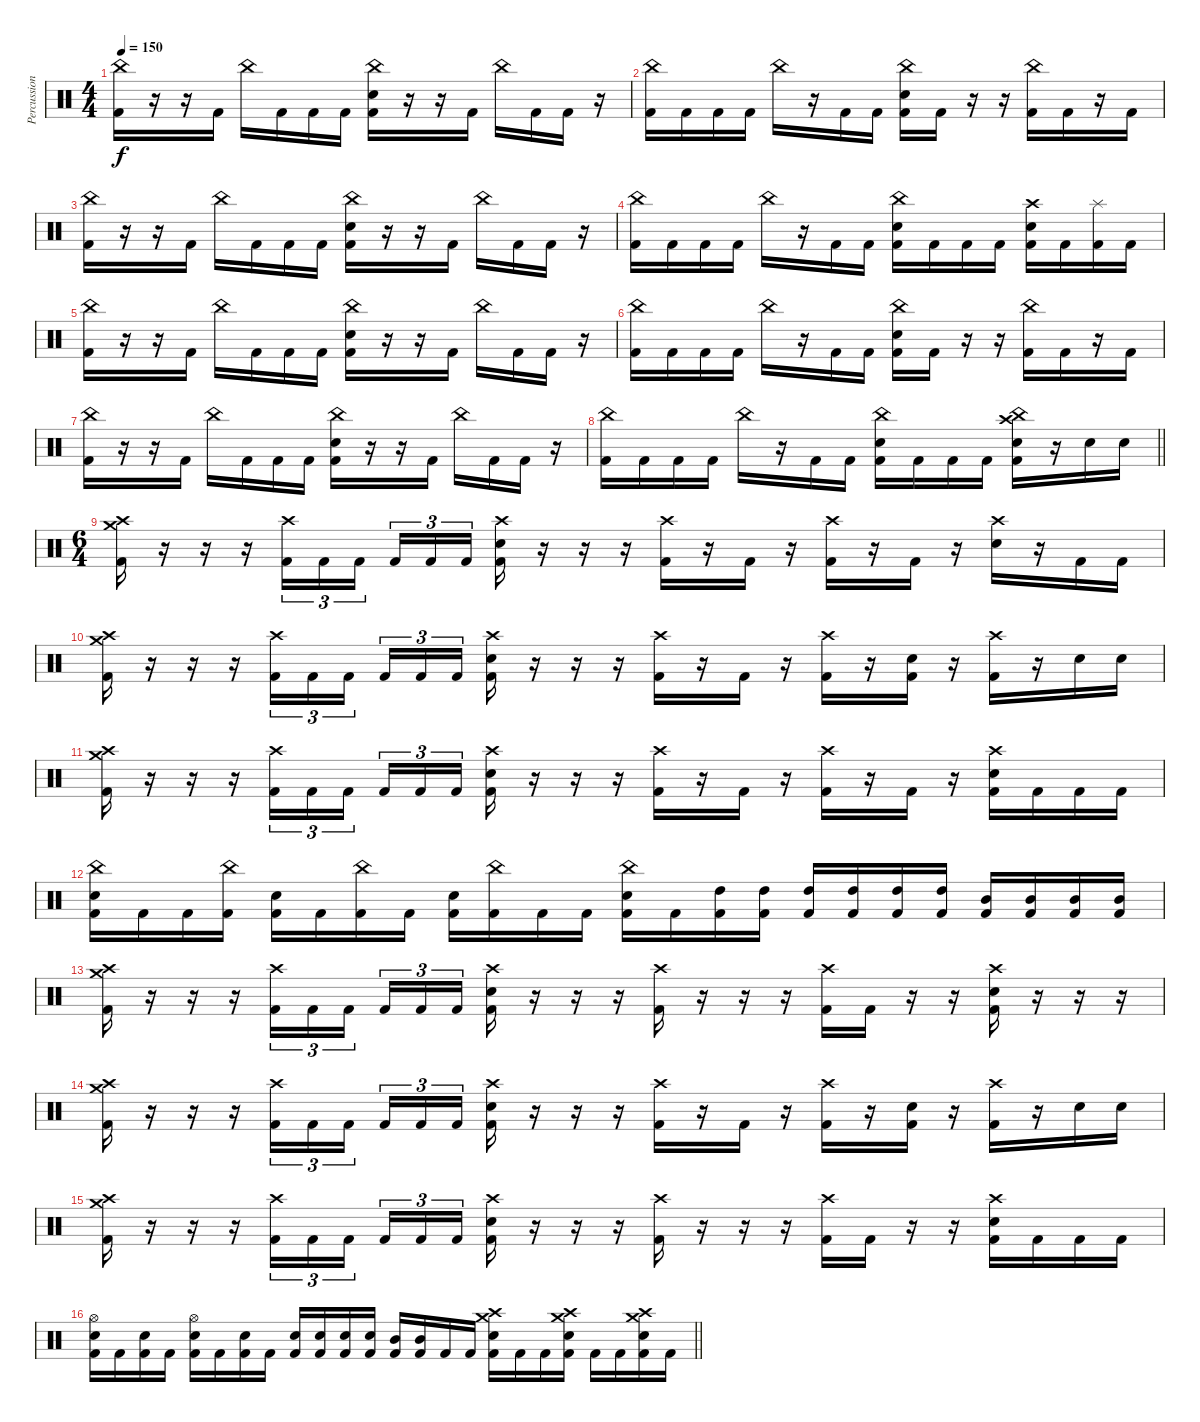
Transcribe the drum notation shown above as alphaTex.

\track ("Percussion" "Percussion") {instrument percussion}
\staff {score}
\articulation defaults
\ts (4 4)
\tempo 150
\clef neutral
\ks c
("China (hit)" "Kick (hit) 2").16{dy f} r.16 r.16 "Kick (hit) 2".16 "China (hit)".16 "Kick (hit) 2".16 "Kick (hit) 2".16 "Kick (hit) 2".16 ("China (hit)" "Electric Snare (hit)" "Kick (hit) 2").16 r.16 r.16 "Kick (hit) 2".16 "China (hit)".16 "Kick (hit) 2".16 "Kick (hit) 2".16 r.16 |
("China (hit)" "Kick (hit) 2").16 "Kick (hit) 2".16 "Kick (hit) 2".16 "Kick (hit) 2".16 "China (hit)".16 r.16 "Kick (hit) 2".16 "Kick (hit) 2".16 ("China (hit)" "Electric Snare (hit)" "Kick (hit) 2").16 "Kick (hit) 2".16 r.16 r.16 ("China (hit)" "Kick (hit) 2").16 "Kick (hit) 2".16 r.16 "Kick (hit) 2".16 |
("China (hit)" "Kick (hit) 2").16 r.16 r.16 "Kick (hit) 2".16 "China (hit)".16 "Kick (hit) 2".16 "Kick (hit) 2".16 "Kick (hit) 2".16 ("China (hit)" "Electric Snare (hit)" "Kick (hit) 2").16 r.16 r.16 "Kick (hit) 2".16 "China (hit)".16 "Kick (hit) 2".16 "Kick (hit) 2".16 r.16 |
("China (hit)" "Kick (hit) 2").16 "Kick (hit) 2".16 "Kick (hit) 2".16 "Kick (hit) 2".16 "China (hit)".16 r.16 "Kick (hit) 2".16 "Kick (hit) 2".16 ("China (hit)" "Electric Snare (hit)" "Kick (hit) 2").16 "Kick (hit) 2".16 "Kick (hit) 2".16 "Kick (hit) 2".16 ("Crash high (hit)" "Electric Snare (hit)" "Kick (hit) 2").16 "Kick (hit) 2".16 ("Splash (hit)" "Kick (hit) 2").16 "Kick (hit) 2".16 |
("China (hit)" "Kick (hit) 2").16 r.16 r.16 "Kick (hit) 2".16 "China (hit)".16 "Kick (hit) 2".16 "Kick (hit) 2".16 "Kick (hit) 2".16 ("China (hit)" "Electric Snare (hit)" "Kick (hit) 2").16 r.16 r.16 "Kick (hit) 2".16 "China (hit)".16 "Kick (hit) 2".16 "Kick (hit) 2".16 r.16 |
("China (hit)" "Kick (hit) 2").16 "Kick (hit) 2".16 "Kick (hit) 2".16 "Kick (hit) 2".16 "China (hit)".16 r.16 "Kick (hit) 2".16 "Kick (hit) 2".16 ("China (hit)" "Electric Snare (hit)" "Kick (hit) 2").16 "Kick (hit) 2".16 r.16 r.16 ("China (hit)" "Kick (hit) 2").16 "Kick (hit) 2".16 r.16 "Kick (hit) 2".16 |
("China (hit)" "Kick (hit) 2").16 r.16 r.16 "Kick (hit) 2".16 "China (hit)".16 "Kick (hit) 2".16 "Kick (hit) 2".16 "Kick (hit) 2".16 ("China (hit)" "Electric Snare (hit)" "Kick (hit) 2").16 r.16 r.16 "Kick (hit) 2".16 "China (hit)".16 "Kick (hit) 2".16 "Kick (hit) 2".16 r.16 |
\barLineRight lightlight
("China (hit)" "Kick (hit) 2").16 "Kick (hit) 2".16 "Kick (hit) 2".16 "Kick (hit) 2".16 "China (hit)".16 r.16 "Kick (hit) 2".16 "Kick (hit) 2".16 ("China (hit)" "Electric Snare (hit)" "Kick (hit) 2").16 "Kick (hit) 2".16 "Kick (hit) 2".16 "Kick (hit) 2".16 ("China (hit)" "Crash high (hit)" "Electric Snare (hit)" "Kick (hit) 2").16 r.16 "Electric Snare (hit)".16 "Electric Snare (hit)".16 |
\ts (6 4)
("Crash high (hit)" "Crash medium (hit)" "Kick (hit) 2").16 r.16 r.16 r.16 ("Crash high (hit)" "Kick (hit) 2").16{tu (3 2)} "Kick (hit) 2".16{tu (3 2)} "Kick (hit) 2".16{tu (3 2) beam splitsecondary} "Kick (hit) 2".16{tu (3 2)} "Kick (hit) 2".16{tu (3 2)} "Kick (hit) 2".16{tu (3 2) beam splitsecondary} ("Crash high (hit)" "Electric Snare (hit)" "Kick (hit) 2").16 r.16 r.16 r.16 ("Crash high (hit)" "Kick (hit) 2").16 r.16 "Kick (hit) 2".16 r.16 ("Crash high (hit)" "Kick (hit) 2").16 r.16 "Kick (hit) 2".16 r.16 ("Crash high (hit)" "Electric Snare (hit)").16 r.16 "Kick (hit) 2".16 "Kick (hit) 2".16 |
("Crash high (hit)" "Crash medium (hit)" "Kick (hit) 2").16 r.16 r.16 r.16 ("Crash high (hit)" "Kick (hit) 2").16{tu (3 2)} "Kick (hit) 2".16{tu (3 2)} "Kick (hit) 2".16{tu (3 2) beam splitsecondary} "Kick (hit) 2".16{tu (3 2)} "Kick (hit) 2".16{tu (3 2)} "Kick (hit) 2".16{tu (3 2) beam splitsecondary} ("Crash high (hit)" "Electric Snare (hit)" "Kick (hit) 2").16 r.16 r.16 r.16 ("Crash high (hit)" "Kick (hit) 2").16 r.16 "Kick (hit) 2".16 r.16 ("Crash high (hit)" "Kick (hit) 2").16 r.16 ("Electric Snare (hit)" "Kick (hit) 2").16 r.16 ("Crash high (hit)" "Kick (hit) 2").16 r.16 "Electric Snare (hit)".16 "Electric Snare (hit)".16 |
("Crash high (hit)" "Crash medium (hit)" "Kick (hit) 2").16 r.16 r.16 r.16 ("Crash high (hit)" "Kick (hit) 2").16{tu (3 2)} "Kick (hit) 2".16{tu (3 2)} "Kick (hit) 2".16{tu (3 2) beam splitsecondary} "Kick (hit) 2".16{tu (3 2)} "Kick (hit) 2".16{tu (3 2)} "Kick (hit) 2".16{tu (3 2) beam splitsecondary} ("Crash high (hit)" "Electric Snare (hit)" "Kick (hit) 2").16 r.16 r.16 r.16 ("Crash high (hit)" "Kick (hit) 2").16 r.16 "Kick (hit) 2".16 r.16 ("Crash high (hit)" "Kick (hit) 2").16 r.16 "Kick (hit) 2".16 r.16 ("Crash high (hit)" "Electric Snare (hit)" "Kick (hit) 2").16 "Kick (hit) 2".16 "Kick (hit) 2".16 "Kick (hit) 2".16 |
("China (hit)" "Electric Snare (hit)" "Kick (hit) 2").16 "Kick (hit) 2".16 "Kick (hit) 2".16 ("China (hit)" "Kick (hit) 2").16 ("Electric Snare (hit)" "Kick (hit) 2").16 "Kick (hit) 2".16 ("China (hit)" "Kick (hit) 2").16 "Kick (hit) 2".16 ("Electric Snare (hit)" "Kick (hit) 2").16 ("China (hit)" "Kick (hit) 2").16 "Kick (hit) 2".16 "Kick (hit) 2".16 ("China (hit)" "Electric Snare (hit)" "Kick (hit) 2").16 "Kick (hit) 2".16 ("High Tom (hit)" "Kick (hit) 2").16 ("High Tom (hit)" "Kick (hit) 2").16 ("High Tom (hit)" "Kick (hit) 2").16 ("High Tom (hit)" "Kick (hit) 2").16 ("High Tom (hit)" "Kick (hit) 2").16 ("High Tom (hit)" "Kick (hit) 2").16 ("Mid Tom (hit)" "Kick (hit) 2").16 ("Mid Tom (hit)" "Kick (hit) 2").16 ("Mid Tom (hit)" "Kick (hit) 2").16 ("Mid Tom (hit)" "Kick (hit) 2").16 |
("Crash high (hit)" "Crash medium (hit)" "Kick (hit) 2").16 r.16 r.16 r.16 ("Crash high (hit)" "Kick (hit) 2").16{tu (3 2)} "Kick (hit) 2".16{tu (3 2)} "Kick (hit) 2".16{tu (3 2) beam splitsecondary} "Kick (hit) 2".16{tu (3 2)} "Kick (hit) 2".16{tu (3 2)} "Kick (hit) 2".16{tu (3 2) beam splitsecondary} ("Crash high (hit)" "Electric Snare (hit)" "Kick (hit) 2").16 r.16 r.16 r.16 ("Crash high (hit)" "Kick (hit) 2").16 r.16 r.16 r.16 ("Crash high (hit)" "Kick (hit) 2").16 "Kick (hit) 2".16 r.16 r.16 ("Crash high (hit)" "Electric Snare (hit)" "Kick (hit) 2").16 r.16 r.16 r.16 |
("Crash high (hit)" "Crash medium (hit)" "Kick (hit) 2").16 r.16 r.16 r.16 ("Crash high (hit)" "Kick (hit) 2").16{tu (3 2)} "Kick (hit) 2".16{tu (3 2)} "Kick (hit) 2".16{tu (3 2) beam splitsecondary} "Kick (hit) 2".16{tu (3 2)} "Kick (hit) 2".16{tu (3 2)} "Kick (hit) 2".16{tu (3 2) beam splitsecondary} ("Crash high (hit)" "Electric Snare (hit)" "Kick (hit) 2").16 r.16 r.16 r.16 ("Crash high (hit)" "Kick (hit) 2").16 r.16 "Kick (hit) 2".16 r.16 ("Crash high (hit)" "Kick (hit) 2").16 r.16 ("Electric Snare (hit)" "Kick (hit) 2").16 r.16 ("Crash high (hit)" "Kick (hit) 2").16 r.16 "Electric Snare (hit)".16 "Electric Snare (hit)".16 |
("Crash high (hit)" "Crash medium (hit)" "Kick (hit) 2").16 r.16 r.16 r.16 ("Crash high (hit)" "Kick (hit) 2").16{tu (3 2)} "Kick (hit) 2".16{tu (3 2)} "Kick (hit) 2".16{tu (3 2) beam splitsecondary} "Kick (hit) 2".16{tu (3 2)} "Kick (hit) 2".16{tu (3 2)} "Kick (hit) 2".16{tu (3 2) beam splitsecondary} ("Crash high (hit)" "Electric Snare (hit)" "Kick (hit) 2").16 r.16 r.16 r.16 ("Crash high (hit)" "Kick (hit) 2").16 r.16 r.16 r.16 ("Crash high (hit)" "Kick (hit) 2").16 "Kick (hit) 2".16 r.16 r.16 ("Crash high (hit)" "Electric Snare (hit)" "Kick (hit) 2").16 "Kick (hit) 2".16 "Kick (hit) 2".16 "Kick (hit) 2".16 |
\barLineRight lightlight
("Hi-Hat (open)" "Electric Snare (hit)" "Kick (hit) 2").16 "Kick (hit) 2".16 ("Electric Snare (hit)" "Kick (hit) 2").16 "Kick (hit) 2".16 ("Hi-Hat (open)" "Electric Snare (hit)" "Kick (hit) 2").16 "Kick (hit) 2".16 ("Electric Snare (hit)" "Kick (hit) 2").16 "Kick (hit) 2".16 ("Electric Snare (hit)" "Kick (hit) 2").16 ("Electric Snare (hit)" "Kick (hit) 2").16 ("Electric Snare (hit)" "Kick (hit) 2").16 ("Electric Snare (hit)" "Kick (hit) 2").16 ("Mid Tom (hit)" "Kick (hit) 2").16 ("Mid Tom (hit)" "Kick (hit) 2").16 "Kick (hit) 2".16 "Kick (hit) 2".16 ("Crash high (hit)" "Crash medium (hit)" "Electric Snare (hit)" "Kick (hit) 2").16 "Kick (hit) 2".16 "Kick (hit) 2".16 ("Crash high (hit)" "Crash medium (hit)" "Electric Snare (hit)" "Kick (hit) 2").16 "Kick (hit) 2".16 "Kick (hit) 2".16 ("Crash high (hit)" "Crash medium (hit)" "Electric Snare (hit)" "Kick (hit) 2").16 "Kick (hit) 2".16
